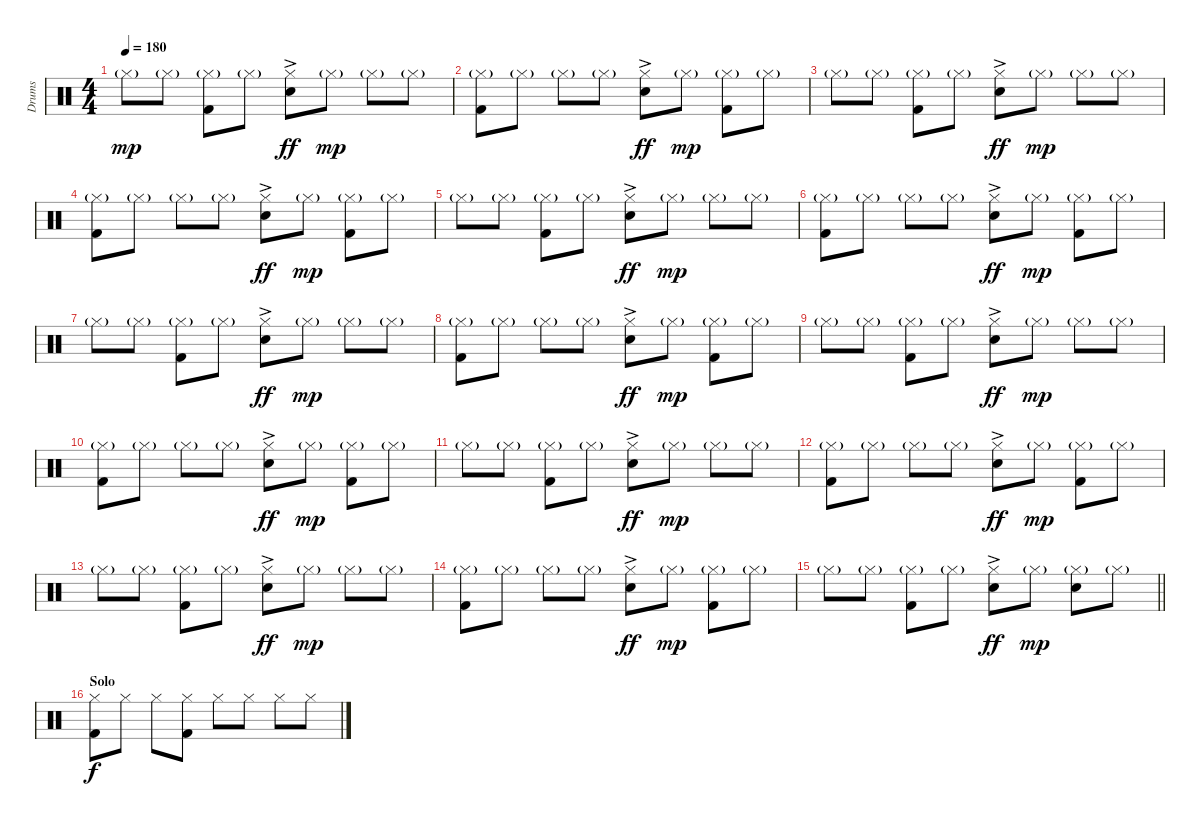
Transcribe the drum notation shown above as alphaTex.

\track ("Drums" "Drums") {instrument percussion}
\staff {score}
\articulation defaults
\ts (4 4)
\tempo 180
\clef neutral
\ks c "Hi-Hat (closed)"{g}.8{dy mp} "Hi-Hat (closed)"{g}.8
("Hi-Hat (closed)"{g} "Kick (hit) 2").8 "Hi-Hat (closed)"{g}.8 ("Hi-Hat (closed)"{ac} "Snare (hit) 2"{ac}).8{dy ff} "Hi-Hat (closed)"{g}.8{dy mp} "Hi-Hat (closed)"{g}.8 "Hi-Hat (closed)"{g}.8 |
("Hi-Hat (closed)"{g} "Kick (hit) 2").8 "Hi-Hat (closed)"{g}.8 "Hi-Hat (closed)"{g}.8 "Hi-Hat (closed)"{g}.8 ("Hi-Hat (closed)"{ac} "Snare (hit) 2"{ac}).8{dy ff} "Hi-Hat (closed)"{g}.8{dy mp} ("Hi-Hat (closed)"{g} "Kick (hit) 2").8 "Hi-Hat (closed)"{g}.8 |
"Hi-Hat (closed)"{g}.8 "Hi-Hat (closed)"{g}.8 ("Hi-Hat (closed)"{g} "Kick (hit) 2").8 "Hi-Hat (closed)"{g}.8 ("Hi-Hat (closed)"{ac} "Snare (hit) 2"{ac}).8{dy ff} "Hi-Hat (closed)"{g}.8{dy mp} "Hi-Hat (closed)"{g}.8 "Hi-Hat (closed)"{g}.8 |
("Hi-Hat (closed)"{g} "Kick (hit) 2").8 "Hi-Hat (closed)"{g}.8 "Hi-Hat (closed)"{g}.8 "Hi-Hat (closed)"{g}.8 ("Hi-Hat (closed)"{ac} "Snare (hit) 2"{ac}).8{dy ff} "Hi-Hat (closed)"{g}.8{dy mp} ("Hi-Hat (closed)"{g} "Kick (hit) 2").8 "Hi-Hat (closed)"{g}.8 |
"Hi-Hat (closed)"{g}.8 "Hi-Hat (closed)"{g}.8 ("Hi-Hat (closed)"{g} "Kick (hit) 2").8 "Hi-Hat (closed)"{g}.8 ("Hi-Hat (closed)"{ac} "Snare (hit) 2"{ac}).8{dy ff} "Hi-Hat (closed)"{g}.8{dy mp} "Hi-Hat (closed)"{g}.8 "Hi-Hat (closed)"{g}.8 |
("Hi-Hat (closed)"{g} "Kick (hit) 2").8 "Hi-Hat (closed)"{g}.8 "Hi-Hat (closed)"{g}.8 "Hi-Hat (closed)"{g}.8 ("Hi-Hat (closed)"{ac} "Snare (hit) 2"{ac}).8{dy ff} "Hi-Hat (closed)"{g}.8{dy mp} ("Hi-Hat (closed)"{g} "Kick (hit) 2").8 "Hi-Hat (closed)"{g}.8 |
"Hi-Hat (closed)"{g}.8 "Hi-Hat (closed)"{g}.8 ("Hi-Hat (closed)"{g} "Kick (hit) 2").8 "Hi-Hat (closed)"{g}.8 ("Hi-Hat (closed)"{ac} "Snare (hit) 2"{ac}).8{dy ff} "Hi-Hat (closed)"{g}.8{dy mp} "Hi-Hat (closed)"{g}.8 "Hi-Hat (closed)"{g}.8 |
("Hi-Hat (closed)"{g} "Kick (hit) 2").8 "Hi-Hat (closed)"{g}.8 "Hi-Hat (closed)"{g}.8 "Hi-Hat (closed)"{g}.8 ("Hi-Hat (closed)"{ac} "Snare (hit) 2"{ac}).8{dy ff} "Hi-Hat (closed)"{g}.8{dy mp} ("Hi-Hat (closed)"{g} "Kick (hit) 2").8 "Hi-Hat (closed)"{g}.8 |
"Hi-Hat (closed)"{g}.8 "Hi-Hat (closed)"{g}.8 ("Hi-Hat (closed)"{g} "Kick (hit) 2").8 "Hi-Hat (closed)"{g}.8 ("Hi-Hat (closed)"{ac} "Snare (hit) 2"{ac}).8{dy ff} "Hi-Hat (closed)"{g}.8{dy mp} "Hi-Hat (closed)"{g}.8 "Hi-Hat (closed)"{g}.8 |
("Hi-Hat (closed)"{g} "Kick (hit) 2").8 "Hi-Hat (closed)"{g}.8 "Hi-Hat (closed)"{g}.8 "Hi-Hat (closed)"{g}.8 ("Hi-Hat (closed)"{ac} "Snare (hit) 2"{ac}).8{dy ff} "Hi-Hat (closed)"{g}.8{dy mp} ("Hi-Hat (closed)"{g} "Kick (hit) 2").8 "Hi-Hat (closed)"{g}.8 |
"Hi-Hat (closed)"{g}.8 "Hi-Hat (closed)"{g}.8 ("Hi-Hat (closed)"{g} "Kick (hit) 2").8 "Hi-Hat (closed)"{g}.8 ("Hi-Hat (closed)"{ac} "Snare (hit) 2"{ac}).8{dy ff} "Hi-Hat (closed)"{g}.8{dy mp} "Hi-Hat (closed)"{g}.8 "Hi-Hat (closed)"{g}.8 |
("Hi-Hat (closed)"{g} "Kick (hit) 2").8 "Hi-Hat (closed)"{g}.8 "Hi-Hat (closed)"{g}.8 "Hi-Hat (closed)"{g}.8 ("Hi-Hat (closed)"{ac} "Snare (hit) 2"{ac}).8{dy ff} "Hi-Hat (closed)"{g}.8{dy mp} ("Hi-Hat (closed)"{g} "Kick (hit) 2").8 "Hi-Hat (closed)"{g}.8 |
"Hi-Hat (closed)"{g}.8 "Hi-Hat (closed)"{g}.8 ("Hi-Hat (closed)"{g} "Kick (hit) 2").8 "Hi-Hat (closed)"{g}.8 ("Hi-Hat (closed)"{ac} "Snare (hit) 2"{ac}).8{dy ff} "Hi-Hat (closed)"{g}.8{dy mp} "Hi-Hat (closed)"{g}.8 "Hi-Hat (closed)"{g}.8 |
("Hi-Hat (closed)"{g} "Kick (hit) 2").8 "Hi-Hat (closed)"{g}.8 "Hi-Hat (closed)"{g}.8 "Hi-Hat (closed)"{g}.8 ("Hi-Hat (closed)"{ac} "Snare (hit) 2"{ac}).8{dy ff} "Hi-Hat (closed)"{g}.8{dy mp} ("Hi-Hat (closed)"{g} "Kick (hit) 2").8 "Hi-Hat (closed)"{g}.8 |
\barLineRight lightlight "Hi-Hat (closed)"{g}.8 "Hi-Hat (closed)"{g}.8
("Hi-Hat (closed)"{g} "Kick (hit) 2").8 "Hi-Hat (closed)"{g}.8 ("Hi-Hat (closed)"{ac} "Snare (hit) 2"{ac}).8{dy ff} "Hi-Hat (closed)"{g}.8{dy mp} ("Hi-Hat (closed)"{g} "Snare (hit) 2").8 "Hi-Hat (closed)"{g}.8 |
\section ("" "Solo")
("Hi-Hat (closed)" "Kick (hit) 2").8{dy f} "Hi-Hat (closed)".8 "Hi-Hat (closed)".8 ("Hi-Hat (closed)" "Kick (hit) 2").8 "Hi-Hat (closed)".8 "Hi-Hat (closed)".8 "Hi-Hat (closed)".8 "Hi-Hat (closed)".8
